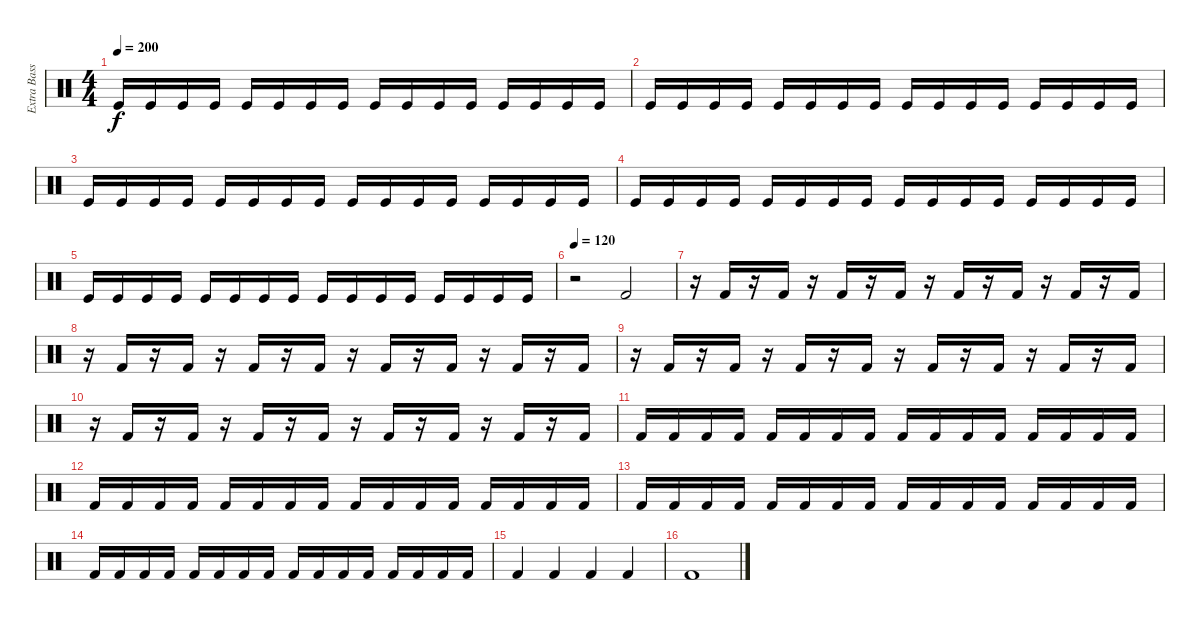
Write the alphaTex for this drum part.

\track ("Extra Bass Drum" "Extra Bass") {instrument percussion}
\staff {score}
\articulation defaults
\ts (4 4)
\tempo 200
\clef neutral
\ks c "Kick (hit)".16{dy f} "Kick (hit)".16 "Kick (hit)".16 "Kick (hit)".16 "Kick (hit)".16 "Kick (hit)".16 "Kick (hit)".16 "Kick (hit)".16 "Kick (hit)".16 "Kick (hit)".16 "Kick (hit)".16 "Kick (hit)".16 "Kick (hit)".16 "Kick (hit)".16 "Kick (hit)".16 "Kick (hit)".16
|
"Kick (hit)".16 "Kick (hit)".16 "Kick (hit)".16 "Kick (hit)".16 "Kick (hit)".16 "Kick (hit)".16 "Kick (hit)".16 "Kick (hit)".16 "Kick (hit)".16 "Kick (hit)".16 "Kick (hit)".16 "Kick (hit)".16 "Kick (hit)".16 "Kick (hit)".16 "Kick (hit)".16 "Kick (hit)".16 |
"Kick (hit)".16 "Kick (hit)".16 "Kick (hit)".16 "Kick (hit)".16 "Kick (hit)".16 "Kick (hit)".16 "Kick (hit)".16 "Kick (hit)".16 "Kick (hit)".16 "Kick (hit)".16 "Kick (hit)".16 "Kick (hit)".16 "Kick (hit)".16 "Kick (hit)".16 "Kick (hit)".16 "Kick (hit)".16 |
"Kick (hit)".16 "Kick (hit)".16 "Kick (hit)".16 "Kick (hit)".16 "Kick (hit)".16 "Kick (hit)".16 "Kick (hit)".16 "Kick (hit)".16 "Kick (hit)".16 "Kick (hit)".16 "Kick (hit)".16 "Kick (hit)".16 "Kick (hit)".16 "Kick (hit)".16 "Kick (hit)".16 "Kick (hit)".16 |
"Kick (hit)".16 "Kick (hit)".16 "Kick (hit)".16 "Kick (hit)".16 "Kick (hit)".16 "Kick (hit)".16 "Kick (hit)".16 "Kick (hit)".16 "Kick (hit)".16 "Kick (hit)".16 "Kick (hit)".16 "Kick (hit)".16 "Kick (hit)".16 "Kick (hit)".16 "Kick (hit)".16 "Kick (hit)".16 |
\tempo 120
r.2 "Kick (hit) 2".2 |
r.16 "Kick (hit) 2".16 r.16 "Kick (hit) 2".16 r.16 "Kick (hit) 2".16 r.16 "Kick (hit) 2".16 r.16 "Kick (hit) 2".16 r.16 "Kick (hit) 2".16 r.16 "Kick (hit) 2".16 r.16 "Kick (hit) 2".16 |
r.16 "Kick (hit) 2".16 r.16 "Kick (hit) 2".16 r.16 "Kick (hit) 2".16 r.16 "Kick (hit) 2".16 r.16 "Kick (hit) 2".16 r.16 "Kick (hit) 2".16 r.16 "Kick (hit) 2".16 r.16 "Kick (hit) 2".16 |
r.16 "Kick (hit) 2".16 r.16 "Kick (hit) 2".16 r.16 "Kick (hit) 2".16 r.16 "Kick (hit) 2".16 r.16 "Kick (hit) 2".16 r.16 "Kick (hit) 2".16 r.16 "Kick (hit) 2".16 r.16 "Kick (hit) 2".16 |
r.16 "Kick (hit) 2".16 r.16 "Kick (hit) 2".16 r.16 "Kick (hit) 2".16 r.16 "Kick (hit) 2".16 r.16 "Kick (hit) 2".16 r.16 "Kick (hit) 2".16 r.16 "Kick (hit) 2".16 r.16 "Kick (hit) 2".16 |
"Kick (hit) 2".16 "Kick (hit) 2".16 "Kick (hit) 2".16 "Kick (hit) 2".16 "Kick (hit) 2".16 "Kick (hit) 2".16 "Kick (hit) 2".16 "Kick (hit) 2".16 "Kick (hit) 2".16 "Kick (hit) 2".16 "Kick (hit) 2".16 "Kick (hit) 2".16 "Kick (hit) 2".16 "Kick (hit) 2".16 "Kick (hit) 2".16 "Kick (hit) 2".16 |
"Kick (hit) 2".16 "Kick (hit) 2".16 "Kick (hit) 2".16 "Kick (hit) 2".16 "Kick (hit) 2".16 "Kick (hit) 2".16 "Kick (hit) 2".16 "Kick (hit) 2".16 "Kick (hit) 2".16 "Kick (hit) 2".16 "Kick (hit) 2".16 "Kick (hit) 2".16 "Kick (hit) 2".16 "Kick (hit) 2".16 "Kick (hit) 2".16 "Kick (hit) 2".16 |
"Kick (hit) 2".16 "Kick (hit) 2".16 "Kick (hit) 2".16 "Kick (hit) 2".16 "Kick (hit) 2".16 "Kick (hit) 2".16 "Kick (hit) 2".16 "Kick (hit) 2".16 "Kick (hit) 2".16 "Kick (hit) 2".16 "Kick (hit) 2".16 "Kick (hit) 2".16 "Kick (hit) 2".16 "Kick (hit) 2".16 "Kick (hit) 2".16 "Kick (hit) 2".16 |
"Kick (hit) 2".16 "Kick (hit) 2".16 "Kick (hit) 2".16 "Kick (hit) 2".16 "Kick (hit) 2".16 "Kick (hit) 2".16 "Kick (hit) 2".16 "Kick (hit) 2".16 "Kick (hit) 2".16 "Kick (hit) 2".16 "Kick (hit) 2".16 "Kick (hit) 2".16 "Kick (hit) 2".16 "Kick (hit) 2".16 "Kick (hit) 2".16 "Kick (hit) 2".16 |
"Kick (hit) 2".4 "Kick (hit) 2".4 "Kick (hit) 2".4 "Kick (hit) 2".4 |
"Kick (hit) 2".1
